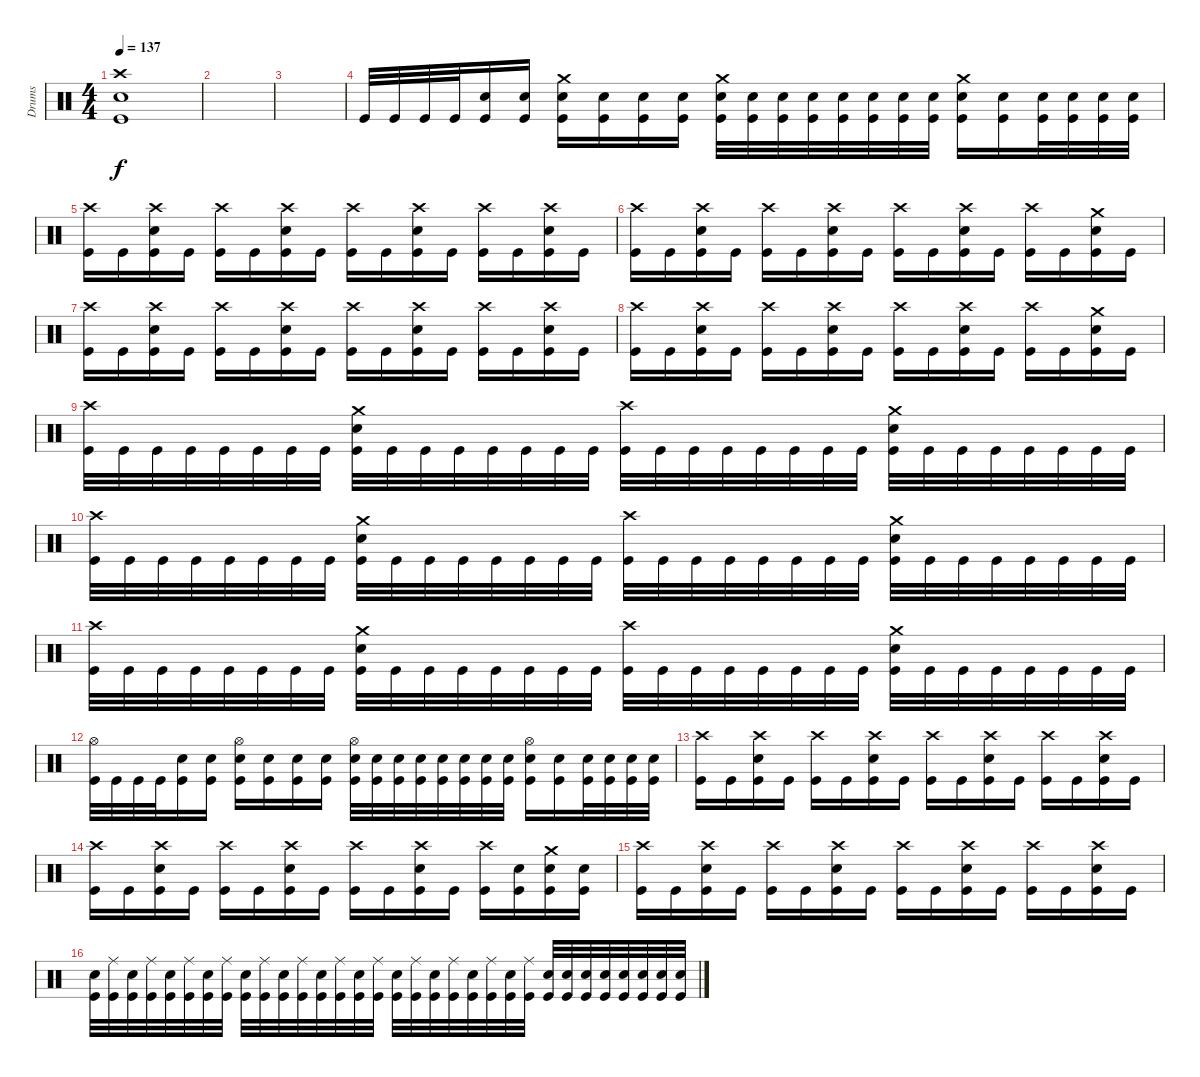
\track ("Drums" "Drums") {instrument percussion}
\staff
\articulation defaults
\ts (4 4)
\section ("" "")
\tempo 137
\clef neutral
\ks c
("Crash high (hit)" "Electric Snare (hit)" "Kick (hit)").1{dy f} |
|
|
"Kick (hit)".32 "Kick (hit)".32 "Kick (hit)".32 "Kick (hit)".32 ("Electric Snare (hit)" "Kick (hit)").16 ("Electric Snare (hit)" "Kick (hit)").16 ("Crash medium (hit)" "Electric Snare (hit)" "Kick (hit)").16 ("Electric Snare (hit)" "Kick (hit)").16 ("Electric Snare (hit)" "Kick (hit)").16 ("Electric Snare (hit)" "Kick (hit)").16 ("Crash medium (hit)" "Electric Snare (hit)" "Kick (hit)").32 ("Electric Snare (hit)" "Kick (hit)").32 ("Electric Snare (hit)" "Kick (hit)").32 ("Electric Snare (hit)" "Kick (hit)").32 ("Electric Snare (hit)" "Kick (hit)").32 ("Electric Snare (hit)" "Kick (hit)").32 ("Electric Snare (hit)" "Kick (hit)").32 ("Electric Snare (hit)" "Kick (hit)").32 ("Crash medium (hit)" "Electric Snare (hit)" "Kick (hit)").16 ("Electric Snare (hit)" "Kick (hit)").16 ("Electric Snare (hit)" "Kick (hit)").32 ("Electric Snare (hit)" "Kick (hit)").32 ("Electric Snare (hit)" "Kick (hit)").32 ("Electric Snare (hit)" "Kick (hit)").32 |
("Crash high (hit)" "Kick (hit)").16 "Kick (hit)".16 ("Crash high (hit)" "Electric Snare (hit)" "Kick (hit)").16 "Kick (hit)".16 ("Crash high (hit)" "Kick (hit)").16 "Kick (hit)".16 ("Crash high (hit)" "Electric Snare (hit)" "Kick (hit)").16 "Kick (hit)".16 ("Crash high (hit)" "Kick (hit)").16 "Kick (hit)".16 ("Crash high (hit)" "Electric Snare (hit)" "Kick (hit)").16 "Kick (hit)".16 ("Crash high (hit)" "Kick (hit)").16 "Kick (hit)".16 ("Crash high (hit)" "Electric Snare (hit)" "Kick (hit)").16 "Kick (hit)".16 |
("Crash high (hit)" "Kick (hit)").16 "Kick (hit)".16 ("Crash high (hit)" "Electric Snare (hit)" "Kick (hit)").16 "Kick (hit)".16 ("Crash high (hit)" "Kick (hit)").16 "Kick (hit)".16 ("Crash high (hit)" "Electric Snare (hit)" "Kick (hit)").16 "Kick (hit)".16 ("Crash high (hit)" "Kick (hit)").16 "Kick (hit)".16 ("Crash high (hit)" "Electric Snare (hit)" "Kick (hit)").16 "Kick (hit)".16 ("Crash high (hit)" "Kick (hit)").16 "Kick (hit)".16 ("Crash medium (hit)" "Electric Snare (hit)" "Kick (hit)").16 "Kick (hit)".16 |
("Crash high (hit)" "Kick (hit)").16 "Kick (hit)".16 ("Crash high (hit)" "Electric Snare (hit)" "Kick (hit)").16 "Kick (hit)".16 ("Crash high (hit)" "Kick (hit)").16 "Kick (hit)".16 ("Crash high (hit)" "Electric Snare (hit)" "Kick (hit)").16 "Kick (hit)".16 ("Crash high (hit)" "Kick (hit)").16 "Kick (hit)".16 ("Crash high (hit)" "Electric Snare (hit)" "Kick (hit)").16 "Kick (hit)".16 ("Crash high (hit)" "Kick (hit)").16 "Kick (hit)".16 ("Crash high (hit)" "Electric Snare (hit)" "Kick (hit)").16 "Kick (hit)".16 |
("Crash high (hit)" "Kick (hit)").16 "Kick (hit)".16 ("Crash high (hit)" "Electric Snare (hit)" "Kick (hit)").16 "Kick (hit)".16 ("Crash high (hit)" "Kick (hit)").16 "Kick (hit)".16 ("Crash high (hit)" "Electric Snare (hit)" "Kick (hit)").16 "Kick (hit)".16 ("Crash high (hit)" "Kick (hit)").16 "Kick (hit)".16 ("Crash high (hit)" "Electric Snare (hit)" "Kick (hit)").16 "Kick (hit)".16 ("Crash high (hit)" "Kick (hit)").16 "Kick (hit)".16 ("Crash medium (hit)" "Electric Snare (hit)" "Kick (hit)").16 "Kick (hit)".16 |
("Crash high (hit)" "Kick (hit)").32 "Kick (hit)".32 "Kick (hit)".32 "Kick (hit)".32 "Kick (hit)".32 "Kick (hit)".32 "Kick (hit)".32 "Kick (hit)".32 ("Crash medium (hit)" "Electric Snare (hit)" "Kick (hit)").32 "Kick (hit)".32 "Kick (hit)".32 "Kick (hit)".32 "Kick (hit)".32 "Kick (hit)".32 "Kick (hit)".32 "Kick (hit)".32 ("Crash high (hit)" "Kick (hit)").32 "Kick (hit)".32 "Kick (hit)".32 "Kick (hit)".32 "Kick (hit)".32 "Kick (hit)".32 "Kick (hit)".32 "Kick (hit)".32 ("Crash medium (hit)" "Electric Snare (hit)" "Kick (hit)").32 "Kick (hit)".32 "Kick (hit)".32 "Kick (hit)".32 "Kick (hit)".32 "Kick (hit)".32 "Kick (hit)".32 "Kick (hit)".32 |
("Crash high (hit)" "Kick (hit)").32 "Kick (hit)".32 "Kick (hit)".32 "Kick (hit)".32 "Kick (hit)".32 "Kick (hit)".32 "Kick (hit)".32 "Kick (hit)".32 ("Crash medium (hit)" "Electric Snare (hit)" "Kick (hit)").32 "Kick (hit)".32 "Kick (hit)".32 "Kick (hit)".32 "Kick (hit)".32 "Kick (hit)".32 "Kick (hit)".32 "Kick (hit)".32 ("Crash high (hit)" "Kick (hit)").32 "Kick (hit)".32 "Kick (hit)".32 "Kick (hit)".32 "Kick (hit)".32 "Kick (hit)".32 "Kick (hit)".32 "Kick (hit)".32 ("Crash medium (hit)" "Electric Snare (hit)" "Kick (hit)").32 "Kick (hit)".32 "Kick (hit)".32 "Kick (hit)".32 "Kick (hit)".32 "Kick (hit)".32 "Kick (hit)".32 "Kick (hit)".32 |
("Crash high (hit)" "Kick (hit)").32 "Kick (hit)".32 "Kick (hit)".32 "Kick (hit)".32 "Kick (hit)".32 "Kick (hit)".32 "Kick (hit)".32 "Kick (hit)".32 ("Crash medium (hit)" "Electric Snare (hit)" "Kick (hit)").32 "Kick (hit)".32 "Kick (hit)".32 "Kick (hit)".32 "Kick (hit)".32 "Kick (hit)".32 "Kick (hit)".32 "Kick (hit)".32 ("Crash high (hit)" "Kick (hit)").32 "Kick (hit)".32 "Kick (hit)".32 "Kick (hit)".32 "Kick (hit)".32 "Kick (hit)".32 "Kick (hit)".32 "Kick (hit)".32 ("Crash medium (hit)" "Electric Snare (hit)" "Kick (hit)").32 "Kick (hit)".32 "Kick (hit)".32 "Kick (hit)".32 "Kick (hit)".32 "Kick (hit)".32 "Kick (hit)".32 "Kick (hit)".32 |
("Hi-Hat (open)" "Kick (hit)").32 "Kick (hit)".32 "Kick (hit)".32 "Kick (hit)".32 ("Electric Snare (hit)" "Kick (hit)").16 ("Electric Snare (hit)" "Kick (hit)").16 ("Hi-Hat (open)" "Electric Snare (hit)" "Kick (hit)").16 ("Electric Snare (hit)" "Kick (hit)").16 ("Electric Snare (hit)" "Kick (hit)").16 ("Electric Snare (hit)" "Kick (hit)").16 ("Hi-Hat (open)" "Electric Snare (hit)" "Kick (hit)").32 ("Electric Snare (hit)" "Kick (hit)").32 ("Electric Snare (hit)" "Kick (hit)").32 ("Electric Snare (hit)" "Kick (hit)").32 ("Electric Snare (hit)" "Kick (hit)").32 ("Electric Snare (hit)" "Kick (hit)").32 ("Electric Snare (hit)" "Kick (hit)").32 ("Electric Snare (hit)" "Kick (hit)").32 ("Hi-Hat (open)" "Electric Snare (hit)" "Kick (hit)").16 ("Electric Snare (hit)" "Kick (hit)").16 ("Electric Snare (hit)" "Kick (hit)").32 ("Electric Snare (hit)" "Kick (hit)").32 ("Electric Snare (hit)" "Kick (hit)").32 ("Electric Snare (hit)" "Kick (hit)").32 |
("Crash high (hit)" "Kick (hit)").16 "Kick (hit)".16 ("Crash high (hit)" "Electric Snare (hit)" "Kick (hit)").16 "Kick (hit)".16 ("Crash high (hit)" "Kick (hit)").16 "Kick (hit)".16 ("Crash high (hit)" "Electric Snare (hit)" "Kick (hit)").16 "Kick (hit)".16 ("Crash high (hit)" "Kick (hit)").16 "Kick (hit)".16 ("Crash high (hit)" "Electric Snare (hit)" "Kick (hit)").16 "Kick (hit)".16 ("Crash high (hit)" "Kick (hit)").16 "Kick (hit)".16 ("Crash high (hit)" "Electric Snare (hit)" "Kick (hit)").16 "Kick (hit)".16 |
("Crash high (hit)" "Kick (hit)").16 "Kick (hit)".16 ("Crash high (hit)" "Electric Snare (hit)" "Kick (hit)").16 "Kick (hit)".16 ("Crash high (hit)" "Kick (hit)").16 "Kick (hit)".16 ("Crash high (hit)" "Electric Snare (hit)" "Kick (hit)").16 "Kick (hit)".16 ("Crash high (hit)" "Kick (hit)").16 "Kick (hit)".16 ("Crash high (hit)" "Electric Snare (hit)" "Kick (hit)").16 "Kick (hit)".16 ("Crash high (hit)" "Kick (hit)").16 ("Electric Snare (hit)" "Kick (hit)").16 ("Crash medium (hit)" "Electric Snare (hit)" "Kick (hit)").16 ("Electric Snare (hit)" "Kick (hit)").16 |
("Crash high (hit)" "Kick (hit)").16 "Kick (hit)".16 ("Crash high (hit)" "Electric Snare (hit)" "Kick (hit)").16 "Kick (hit)".16 ("Crash high (hit)" "Kick (hit)").16 "Kick (hit)".16 ("Crash high (hit)" "Electric Snare (hit)" "Kick (hit)").16 "Kick (hit)".16 ("Crash high (hit)" "Kick (hit)").16 "Kick (hit)".16 ("Crash high (hit)" "Electric Snare (hit)" "Kick (hit)").16 "Kick (hit)".16 ("Crash high (hit)" "Kick (hit)").16 "Kick (hit)".16 ("Crash high (hit)" "Electric Snare (hit)" "Kick (hit)").16 "Kick (hit)".16 |
("Electric Snare (hit)" "Kick (hit)").32 ("Ride (middle)" "Kick (hit)").32 ("Electric Snare (hit)" "Kick (hit)").32 ("Ride (middle)" "Kick (hit)").32 ("Electric Snare (hit)" "Kick (hit)").32 ("Ride (middle)" "Kick (hit)").32 ("Electric Snare (hit)" "Kick (hit)").32 ("Ride (middle)" "Kick (hit)").32 ("Electric Snare (hit)" "Kick (hit)").32 ("Ride (middle)" "Kick (hit)").32 ("Electric Snare (hit)" "Kick (hit)").32 ("Ride (middle)" "Kick (hit)").32 ("Electric Snare (hit)" "Kick (hit)").32 ("Ride (middle)" "Kick (hit)").32 ("Electric Snare (hit)" "Kick (hit)").32 ("Ride (middle)" "Kick (hit)").32 ("Electric Snare (hit)" "Kick (hit)").32 ("Ride (middle)" "Kick (hit)").32 ("Electric Snare (hit)" "Kick (hit)").32 ("Ride (middle)" "Kick (hit)").32 ("Electric Snare (hit)" "Kick (hit)").32 ("Ride (middle)" "Kick (hit)").32 ("Electric Snare (hit)" "Kick (hit)").32 ("Ride (middle)" "Kick (hit)").32 ("Electric Snare (hit)" "Kick (hit)").32 ("Electric Snare (hit)" "Kick (hit)").32 ("Electric Snare (hit)" "Kick (hit)").32 ("Electric Snare (hit)" "Kick (hit)").32 ("Electric Snare (hit)" "Kick (hit)").32 ("Electric Snare (hit)" "Kick (hit)").32 ("Electric Snare (hit)" "Kick (hit)").32 ("Electric Snare (hit)" "Kick (hit)").32
